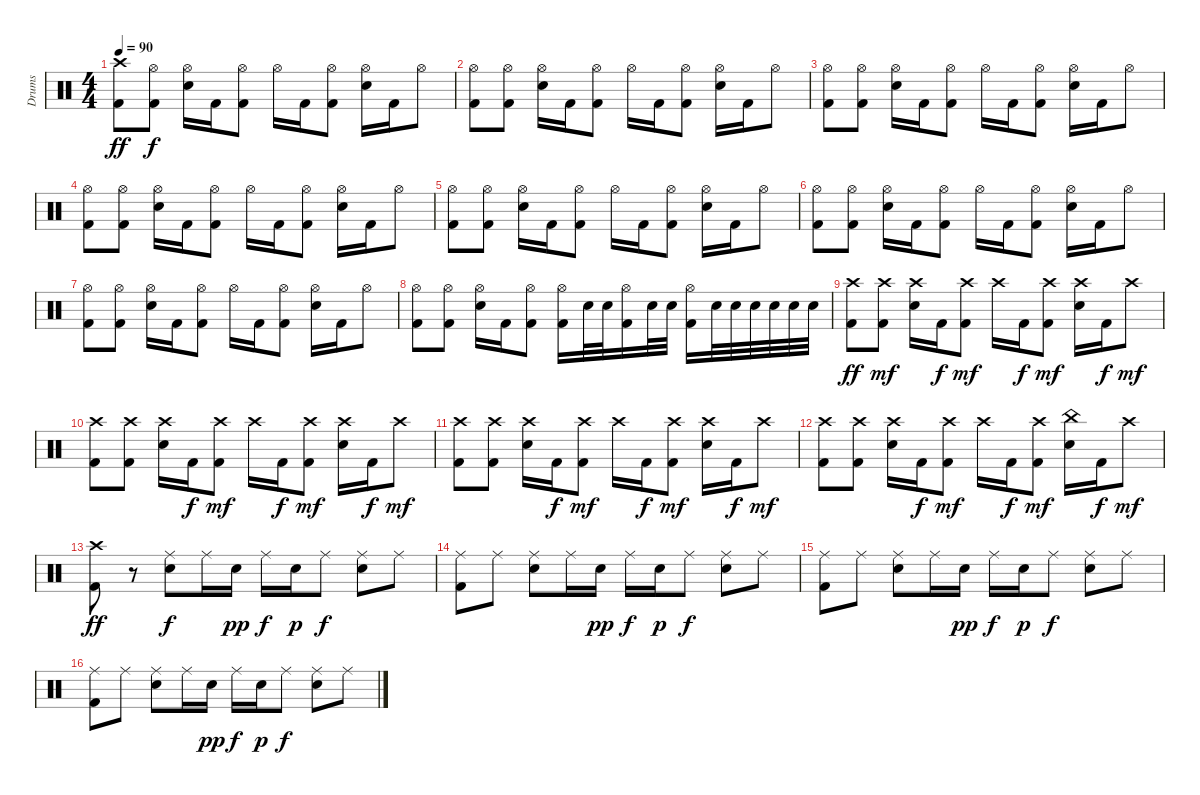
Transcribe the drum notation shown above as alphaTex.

\track ("Drums" "Drums") {instrument percussion}
\staff {score}
\articulation defaults
\ts (4 4)
\tempo 90
\clef neutral
\ks c
("Crash high (hit)" "Kick (hit) 2").8{dy ff} ("Hi-Hat (open)" "Kick (hit) 2").8{dy f} ("Hi-Hat (open)" "Electric Snare (hit)").16 "Kick (hit) 2".16 ("Hi-Hat (open)" "Kick (hit) 2").8 "Hi-Hat (open)".16 "Kick (hit) 2".16 ("Hi-Hat (open)" "Kick (hit) 2").8 ("Hi-Hat (open)" "Electric Snare (hit)").16 "Kick (hit) 2".16 "Hi-Hat (open)".8 |
("Hi-Hat (open)" "Kick (hit) 2").8 ("Hi-Hat (open)" "Kick (hit) 2").8 ("Hi-Hat (open)" "Electric Snare (hit)").16 "Kick (hit) 2".16 ("Hi-Hat (open)" "Kick (hit) 2").8 "Hi-Hat (open)".16 "Kick (hit) 2".16 ("Hi-Hat (open)" "Kick (hit) 2").8 ("Hi-Hat (open)" "Electric Snare (hit)").16 "Kick (hit) 2".16 "Hi-Hat (open)".8 |
("Hi-Hat (open)" "Kick (hit) 2").8 ("Hi-Hat (open)" "Kick (hit) 2").8 ("Hi-Hat (open)" "Electric Snare (hit)").16 "Kick (hit) 2".16 ("Hi-Hat (open)" "Kick (hit) 2").8 "Hi-Hat (open)".16 "Kick (hit) 2".16 ("Hi-Hat (open)" "Kick (hit) 2").8 ("Hi-Hat (open)" "Electric Snare (hit)").16 "Kick (hit) 2".16 "Hi-Hat (open)".8 |
("Hi-Hat (open)" "Kick (hit) 2").8 ("Hi-Hat (open)" "Kick (hit) 2").8 ("Hi-Hat (open)" "Electric Snare (hit)").16 "Kick (hit) 2".16 ("Hi-Hat (open)" "Kick (hit) 2").8 "Hi-Hat (open)".16 "Kick (hit) 2".16 ("Hi-Hat (open)" "Kick (hit) 2").8 ("Hi-Hat (open)" "Electric Snare (hit)").16 "Kick (hit) 2".16 "Hi-Hat (open)".8 |
("Hi-Hat (open)" "Kick (hit) 2").8 ("Hi-Hat (open)" "Kick (hit) 2").8 ("Hi-Hat (open)" "Electric Snare (hit)").16 "Kick (hit) 2".16 ("Hi-Hat (open)" "Kick (hit) 2").8 "Hi-Hat (open)".16 "Kick (hit) 2".16 ("Hi-Hat (open)" "Kick (hit) 2").8 ("Hi-Hat (open)" "Electric Snare (hit)").16 "Kick (hit) 2".16 "Hi-Hat (open)".8 |
("Hi-Hat (open)" "Kick (hit) 2").8 ("Hi-Hat (open)" "Kick (hit) 2").8 ("Hi-Hat (open)" "Electric Snare (hit)").16 "Kick (hit) 2".16 ("Hi-Hat (open)" "Kick (hit) 2").8 "Hi-Hat (open)".16 "Kick (hit) 2".16 ("Hi-Hat (open)" "Kick (hit) 2").8 ("Hi-Hat (open)" "Electric Snare (hit)").16 "Kick (hit) 2".16 "Hi-Hat (open)".8 |
("Hi-Hat (open)" "Kick (hit) 2").8 ("Hi-Hat (open)" "Kick (hit) 2").8 ("Hi-Hat (open)" "Electric Snare (hit)").16 "Kick (hit) 2".16 ("Hi-Hat (open)" "Kick (hit) 2").8 "Hi-Hat (open)".16 "Kick (hit) 2".16 ("Hi-Hat (open)" "Kick (hit) 2").8 ("Hi-Hat (open)" "Electric Snare (hit)").16 "Kick (hit) 2".16 "Hi-Hat (open)".8 |
("Hi-Hat (open)" "Kick (hit) 2").8 ("Hi-Hat (open)" "Kick (hit) 2").8 ("Hi-Hat (open)" "Electric Snare (hit)").16 "Kick (hit) 2".16 ("Hi-Hat (open)" "Kick (hit) 2").8 ("Hi-Hat (open)" "Kick (hit) 2").16 "Electric Snare (hit)".32 "Electric Snare (hit)".32 ("Hi-Hat (open)" "Kick (hit) 2").16 "Electric Snare (hit)".32 "Electric Snare (hit)".32 ("Hi-Hat (open)" "Kick (hit) 2").16 "Electric Snare (hit)".32 "Electric Snare (hit)".32 "Electric Snare (hit)".32 "Electric Snare (hit)".32 "Electric Snare (hit)".32 "Electric Snare (hit)".32 |
("Crash high (hit)" "Kick (hit) 2").8{dy ff} ("Crash high (hit)" "Kick (hit) 2").8{dy mf} ("Crash high (hit)" "Electric Snare (hit)").16 "Kick (hit) 2".16{dy f} ("Crash high (hit)" "Kick (hit) 2").8{dy mf} "Crash high (hit)".16 "Kick (hit) 2".16{dy f} ("Crash high (hit)" "Kick (hit) 2").8{dy mf} ("Crash high (hit)" "Electric Snare (hit)").16 "Kick (hit) 2".16{dy f} "Crash high (hit)".8{dy mf} |
("Crash high (hit)" "Kick (hit) 2").8 ("Crash high (hit)" "Kick (hit) 2").8 ("Crash high (hit)" "Electric Snare (hit)").16 "Kick (hit) 2".16{dy f} ("Crash high (hit)" "Kick (hit) 2").8{dy mf} "Crash high (hit)".16 "Kick (hit) 2".16{dy f} ("Crash high (hit)" "Kick (hit) 2").8{dy mf} ("Crash high (hit)" "Electric Snare (hit)").16 "Kick (hit) 2".16{dy f} "Crash high (hit)".8{dy mf} |
("Crash high (hit)" "Kick (hit) 2").8 ("Crash high (hit)" "Kick (hit) 2").8 ("Crash high (hit)" "Electric Snare (hit)").16 "Kick (hit) 2".16{dy f} ("Crash high (hit)" "Kick (hit) 2").8{dy mf} "Crash high (hit)".16 "Kick (hit) 2".16{dy f} ("Crash high (hit)" "Kick (hit) 2").8{dy mf} ("Crash high (hit)" "Electric Snare (hit)").16 "Kick (hit) 2".16{dy f} "Crash high (hit)".8{dy mf} |
("Crash high (hit)" "Kick (hit) 2").8 ("Crash high (hit)" "Kick (hit) 2").8 ("Crash high (hit)" "Electric Snare (hit)").16 "Kick (hit) 2".16{dy f} ("Crash high (hit)" "Kick (hit) 2").8{dy mf} "Crash high (hit)".16 "Kick (hit) 2".16{dy f} ("Crash high (hit)" "Kick (hit) 2").8{dy mf} ("China (hit)" "Electric Snare (hit)").16 "Kick (hit) 2".16{dy f} "Crash high (hit)".8{dy mf} |
("Crash high (hit)" "Kick (hit) 2").8{dy ff} r.8 ("Ride (middle)" "Electric Snare (hit)").8{dy f} "Ride (middle)".16 "Electric Snare (hit)".16{dy pp} "Ride (middle)".16{dy f} "Electric Snare (hit)".16{dy p} "Ride (middle)".8{dy f} ("Ride (middle)" "Electric Snare (hit)").8 "Ride (middle)".8 |
("Ride (middle)" "Kick (hit) 2").8 "Ride (middle)".8 ("Ride (middle)" "Electric Snare (hit)").8 "Ride (middle)".16 "Electric Snare (hit)".16{dy pp} "Ride (middle)".16{dy f} "Electric Snare (hit)".16{dy p} "Ride (middle)".8{dy f} ("Ride (middle)" "Electric Snare (hit)").8 "Ride (middle)".8 |
("Ride (middle)" "Kick (hit) 2").8 "Ride (middle)".8 ("Ride (middle)" "Electric Snare (hit)").8 "Ride (middle)".16 "Electric Snare (hit)".16{dy pp} "Ride (middle)".16{dy f} "Electric Snare (hit)".16{dy p} "Ride (middle)".8{dy f} ("Ride (middle)" "Electric Snare (hit)").8 "Ride (middle)".8 |
("Ride (middle)" "Kick (hit) 2").8 "Ride (middle)".8 ("Ride (middle)" "Electric Snare (hit)").8 "Ride (middle)".16 "Electric Snare (hit)".16{dy pp} "Ride (middle)".16{dy f} "Electric Snare (hit)".16{dy p} "Ride (middle)".8{dy f} ("Ride (middle)" "Electric Snare (hit)").8 "Ride (middle)".8
